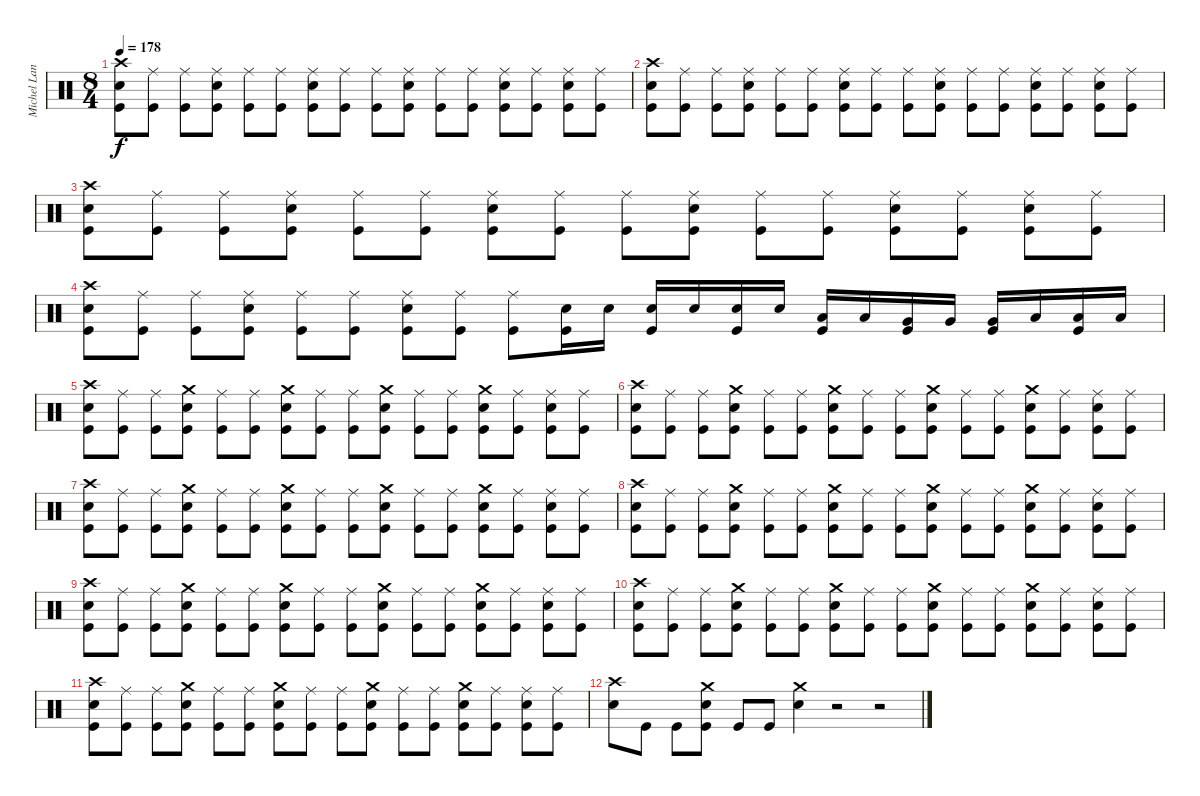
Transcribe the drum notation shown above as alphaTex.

\track ("Michel Langevin [Drums]" "Michel Lan") {instrument percussion}
\staff {score}
\articulation defaults
\ts (8 4)
\tempo 178
\clef neutral
\ks c
("Snare (hit) 2" "Kick (hit)" "Crash high (hit)").8{dy f} ("Kick (hit)" "Ride (middle)").8 ("Kick (hit)" "Ride (middle)").8 ("Snare (hit) 2" "Kick (hit)" "Ride (middle)").8 ("Kick (hit)" "Ride (middle)").8 ("Kick (hit)" "Ride (middle)").8 ("Snare (hit) 2" "Kick (hit)" "Ride (middle)").8 ("Kick (hit)" "Ride (middle)").8 ("Kick (hit)" "Ride (middle)").8 ("Snare (hit) 2" "Kick (hit)" "Ride (middle)").8 ("Kick (hit)" "Ride (middle)").8 ("Kick (hit)" "Ride (middle)").8 ("Snare (hit) 2" "Kick (hit)" "Ride (middle)").8 ("Kick (hit)" "Ride (middle)").8 ("Snare (hit) 2" "Kick (hit)" "Ride (middle)").8 ("Kick (hit)" "Ride (middle)").8 |
("Snare (hit) 2" "Kick (hit)" "Crash high (hit)").8 ("Kick (hit)" "Ride (middle)").8 ("Kick (hit)" "Ride (middle)").8 ("Snare (hit) 2" "Kick (hit)" "Ride (middle)").8 ("Kick (hit)" "Ride (middle)").8 ("Kick (hit)" "Ride (middle)").8 ("Snare (hit) 2" "Kick (hit)" "Ride (middle)").8 ("Kick (hit)" "Ride (middle)").8 ("Kick (hit)" "Ride (middle)").8 ("Snare (hit) 2" "Kick (hit)" "Ride (middle)").8 ("Kick (hit)" "Ride (middle)").8 ("Kick (hit)" "Ride (middle)").8 ("Snare (hit) 2" "Kick (hit)" "Ride (middle)").8 ("Kick (hit)" "Ride (middle)").8 ("Snare (hit) 2" "Kick (hit)" "Ride (middle)").8 ("Kick (hit)" "Ride (middle)").8 |
("Snare (hit) 2" "Kick (hit)" "Crash high (hit)").8 ("Kick (hit)" "Ride (middle)").8 ("Kick (hit)" "Ride (middle)").8 ("Snare (hit) 2" "Kick (hit)" "Ride (middle)").8 ("Kick (hit)" "Ride (middle)").8 ("Kick (hit)" "Ride (middle)").8 ("Snare (hit) 2" "Kick (hit)" "Ride (middle)").8 ("Kick (hit)" "Ride (middle)").8 ("Kick (hit)" "Ride (middle)").8 ("Snare (hit) 2" "Kick (hit)" "Ride (middle)").8 ("Kick (hit)" "Ride (middle)").8 ("Kick (hit)" "Ride (middle)").8 ("Snare (hit) 2" "Kick (hit)" "Ride (middle)").8 ("Kick (hit)" "Ride (middle)").8 ("Snare (hit) 2" "Kick (hit)" "Ride (middle)").8 ("Kick (hit)" "Ride (middle)").8 |
("Snare (hit) 2" "Kick (hit)" "Crash high (hit)").8 ("Kick (hit)" "Ride (middle)").8 ("Kick (hit)" "Ride (middle)").8 ("Snare (hit) 2" "Kick (hit)" "Ride (middle)").8 ("Kick (hit)" "Ride (middle)").8 ("Kick (hit)" "Ride (middle)").8 ("Snare (hit) 2" "Kick (hit)" "Ride (middle)").8 ("Kick (hit)" "Ride (middle)").8 ("Kick (hit)" "Ride (middle)").8 ("Snare (hit) 2" "Kick (hit)").16 "Snare (hit) 2".16 ("Snare (hit) 2" "Kick (hit)").16 "Snare (hit) 2".16 ("Snare (hit) 2" "Kick (hit)").16 "Snare (hit) 2".16 ("Low Tom (hit)" "Kick (hit)").16 "Low Tom (hit)".16 ("Very Low Tom (hit)" "Kick (hit)").16 "Very Low Tom (hit)".16 ("Very Low Tom (hit)" "Kick (hit)").16 "Low Floor Tom (hit)".16 ("Low Floor Tom (hit)" "Kick (hit)").16 "Low Floor Tom (hit)".16 |
("Snare (hit) 2" "Kick (hit)" "Crash high (hit)").8 ("Kick (hit)" "Ride (middle)").8 ("Kick (hit)" "Ride (middle)").8 ("Snare (hit) 2" "Kick (hit)" "Crash medium (hit)").8 ("Kick (hit)" "Ride (middle)").8 ("Kick (hit)" "Ride (middle)").8 ("Snare (hit) 2" "Kick (hit)" "Crash medium (hit)").8 ("Kick (hit)" "Ride (middle)").8 ("Kick (hit)" "Ride (middle)").8 ("Snare (hit) 2" "Kick (hit)" "Crash medium (hit)").8 ("Kick (hit)" "Ride (middle)").8 ("Kick (hit)" "Ride (middle)").8 ("Snare (hit) 2" "Kick (hit)" "Crash medium (hit)").8 ("Kick (hit)" "Ride (middle)").8 ("Snare (hit) 2" "Kick (hit)" "Ride (middle)").8 ("Kick (hit)" "Ride (middle)").8 |
("Snare (hit) 2" "Kick (hit)" "Crash high (hit)").8 ("Kick (hit)" "Ride (middle)").8 ("Kick (hit)" "Ride (middle)").8 ("Snare (hit) 2" "Kick (hit)" "Crash medium (hit)").8 ("Kick (hit)" "Ride (middle)").8 ("Kick (hit)" "Ride (middle)").8 ("Snare (hit) 2" "Kick (hit)" "Crash medium (hit)").8 ("Kick (hit)" "Ride (middle)").8 ("Kick (hit)" "Ride (middle)").8 ("Snare (hit) 2" "Kick (hit)" "Crash medium (hit)").8 ("Kick (hit)" "Ride (middle)").8 ("Kick (hit)" "Ride (middle)").8 ("Snare (hit) 2" "Kick (hit)" "Crash medium (hit)").8 ("Kick (hit)" "Ride (middle)").8 ("Snare (hit) 2" "Kick (hit)" "Ride (middle)").8 ("Kick (hit)" "Ride (middle)").8 |
("Snare (hit) 2" "Kick (hit)" "Crash high (hit)").8 ("Kick (hit)" "Ride (middle)").8 ("Kick (hit)" "Ride (middle)").8 ("Snare (hit) 2" "Kick (hit)" "Crash medium (hit)").8 ("Kick (hit)" "Ride (middle)").8 ("Kick (hit)" "Ride (middle)").8 ("Snare (hit) 2" "Kick (hit)" "Crash medium (hit)").8 ("Kick (hit)" "Ride (middle)").8 ("Kick (hit)" "Ride (middle)").8 ("Snare (hit) 2" "Kick (hit)" "Crash medium (hit)").8 ("Kick (hit)" "Ride (middle)").8 ("Kick (hit)" "Ride (middle)").8 ("Snare (hit) 2" "Kick (hit)" "Crash medium (hit)").8 ("Kick (hit)" "Ride (middle)").8 ("Snare (hit) 2" "Kick (hit)" "Ride (middle)").8 ("Kick (hit)" "Ride (middle)").8 |
("Snare (hit) 2" "Kick (hit)" "Crash high (hit)").8 ("Kick (hit)" "Ride (middle)").8 ("Kick (hit)" "Ride (middle)").8 ("Snare (hit) 2" "Kick (hit)" "Crash medium (hit)").8 ("Kick (hit)" "Ride (middle)").8 ("Kick (hit)" "Ride (middle)").8 ("Snare (hit) 2" "Kick (hit)" "Crash medium (hit)").8 ("Kick (hit)" "Ride (middle)").8 ("Kick (hit)" "Ride (middle)").8 ("Snare (hit) 2" "Kick (hit)" "Crash medium (hit)").8 ("Kick (hit)" "Ride (middle)").8 ("Kick (hit)" "Ride (middle)").8 ("Snare (hit) 2" "Kick (hit)" "Crash medium (hit)").8 ("Kick (hit)" "Ride (middle)").8 ("Snare (hit) 2" "Kick (hit)" "Ride (middle)").8 ("Kick (hit)" "Ride (middle)").8 |
("Snare (hit) 2" "Kick (hit)" "Crash high (hit)").8 ("Kick (hit)" "Ride (middle)").8 ("Kick (hit)" "Ride (middle)").8 ("Snare (hit) 2" "Kick (hit)" "Crash medium (hit)").8 ("Kick (hit)" "Ride (middle)").8 ("Kick (hit)" "Ride (middle)").8 ("Snare (hit) 2" "Kick (hit)" "Crash medium (hit)").8 ("Kick (hit)" "Ride (middle)").8 ("Kick (hit)" "Ride (middle)").8 ("Snare (hit) 2" "Kick (hit)" "Crash medium (hit)").8 ("Kick (hit)" "Ride (middle)").8 ("Kick (hit)" "Ride (middle)").8 ("Snare (hit) 2" "Kick (hit)" "Crash medium (hit)").8 ("Kick (hit)" "Ride (middle)").8 ("Snare (hit) 2" "Kick (hit)" "Ride (middle)").8 ("Kick (hit)" "Ride (middle)").8 |
("Snare (hit) 2" "Kick (hit)" "Crash high (hit)").8 ("Kick (hit)" "Ride (middle)").8 ("Kick (hit)" "Ride (middle)").8 ("Snare (hit) 2" "Kick (hit)" "Crash medium (hit)").8 ("Kick (hit)" "Ride (middle)").8 ("Kick (hit)" "Ride (middle)").8 ("Snare (hit) 2" "Kick (hit)" "Crash medium (hit)").8 ("Kick (hit)" "Ride (middle)").8 ("Kick (hit)" "Ride (middle)").8 ("Snare (hit) 2" "Kick (hit)" "Crash medium (hit)").8 ("Kick (hit)" "Ride (middle)").8 ("Kick (hit)" "Ride (middle)").8 ("Snare (hit) 2" "Kick (hit)" "Crash medium (hit)").8 ("Kick (hit)" "Ride (middle)").8 ("Snare (hit) 2" "Kick (hit)" "Ride (middle)").8 ("Kick (hit)" "Ride (middle)").8 |
("Snare (hit) 2" "Kick (hit)" "Crash high (hit)").8 ("Kick (hit)" "Ride (middle)").8 ("Kick (hit)" "Ride (middle)").8 ("Snare (hit) 2" "Kick (hit)" "Crash medium (hit)").8 ("Kick (hit)" "Ride (middle)").8 ("Kick (hit)" "Ride (middle)").8 ("Snare (hit) 2" "Kick (hit)" "Crash medium (hit)").8 ("Kick (hit)" "Ride (middle)").8 ("Kick (hit)" "Ride (middle)").8 ("Snare (hit) 2" "Kick (hit)" "Crash medium (hit)").8 ("Kick (hit)" "Ride (middle)").8 ("Kick (hit)" "Ride (middle)").8 ("Snare (hit) 2" "Kick (hit)" "Crash medium (hit)").8 ("Kick (hit)" "Ride (middle)").8 ("Snare (hit) 2" "Kick (hit)" "Ride (middle)").8 ("Kick (hit)" "Ride (middle)").8 |
("Snare (hit) 2" "Crash high (hit)").8 "Kick (hit)".8 "Kick (hit)".8 ("Snare (hit) 2" "Kick (hit)" "Crash medium (hit)").8 "Kick (hit)".8 "Kick (hit)".8 ("Snare (hit) 2" "Crash medium (hit)").4 r.2 r.2
